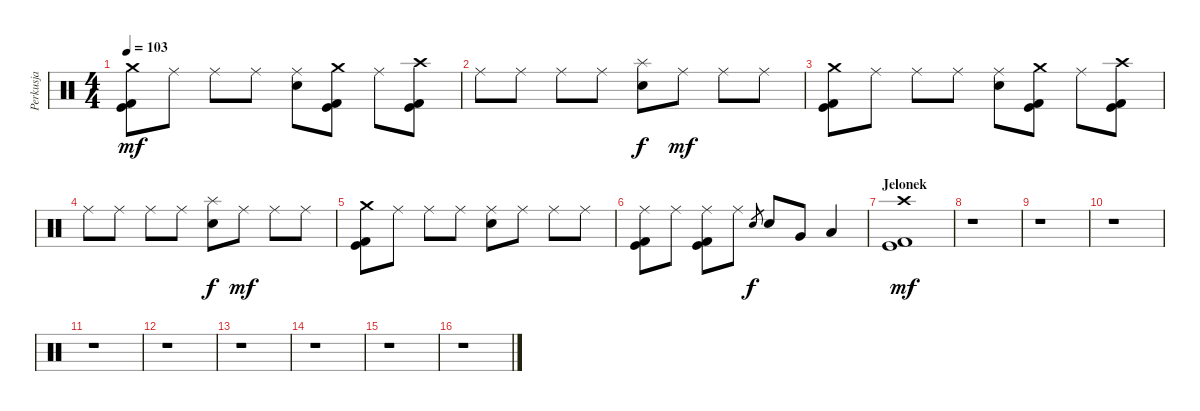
\track ("Perkusja" "Perkusja") {instrument percussion}
\staff {score}
\articulation defaults
\ts (4 4)
\tempo 103
\clef neutral
\ks c
("Kick (hit) 2" "Kick (hit)" "Crash medium (hit)").8{dy mf} "Ride (middle)".8 "Ride (middle)".8 "Ride (middle)".8 ("Snare (hit) 2" "Ride (middle)").8 ("Kick (hit) 2" "Kick (hit)" "Crash medium (hit)").8 "Ride (middle)".8 ("Kick (hit) 2" "Kick (hit)" "Crash high (hit)").8 |
"Ride (middle)".8 "Ride (middle)".8 "Ride (middle)".8 "Ride (middle)".8 ("Snare (hit) 2" "Splash (hit)").8{dy f} "Ride (middle)".8{dy mf} "Ride (middle)".8 "Ride (middle)".8 |
("Kick (hit) 2" "Kick (hit)" "Crash medium (hit)").8 "Ride (middle)".8 "Ride (middle)".8 "Ride (middle)".8 ("Snare (hit) 2" "Ride (middle)").8 ("Kick (hit) 2" "Kick (hit)" "Crash medium (hit)").8 "Ride (middle)".8 ("Kick (hit) 2" "Kick (hit)" "Crash high (hit)").8 |
"Ride (middle)".8 "Ride (middle)".8 "Ride (middle)".8 "Ride (middle)".8 ("Snare (hit) 2" "Splash (hit)").8{dy f} "Ride (middle)".8{dy mf} "Ride (middle)".8 "Ride (middle)".8 |
("Kick (hit) 2" "Kick (hit)" "Crash medium (hit)").8 "Ride (middle)".8 "Ride (middle)".8 "Ride (middle)".8 ("Snare (hit) 2" "Ride (middle)").8 "Ride (middle)".8 "Ride (middle)".8 "Ride (middle)".8 |
("Kick (hit) 2" "Kick (hit)" "Ride (middle)").8 "Ride (middle)".8 ("Kick (hit)" "Kick (hit) 2" "Ride (middle)").8 "Ride (middle)".8 "Snare (hit) 2".8{gr dy f} "Snare (hit) 2".8 "Very Low Tom (hit)".8 "Low Floor Tom (hit)".4 |
\section ("" "Jelonek")
("Kick (hit) 2" "Kick (hit)" "Crash high (hit)").1{dy mf} |
r.1 |
r.1 |
r.1 |
r.1 |
r.1 |
r.1 |
r.1 |
r.1 |
r.1
